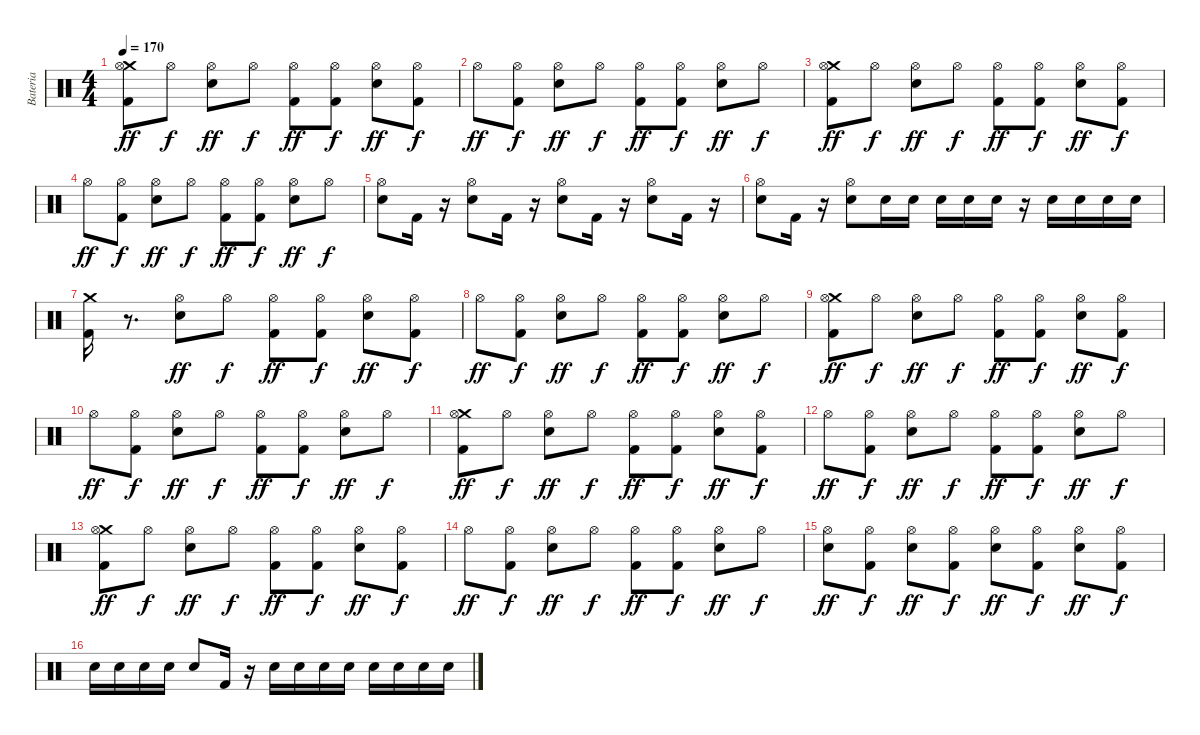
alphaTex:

\track ("Bateria" "Bateria") {instrument percussion}
\staff {score}
\articulation defaults
\ts (4 4)
\tempo 170
\clef neutral
\ks c
("Crash medium (hit)" "Hi-Hat (open)" "Kick (hit) 2").8{dy ff} "Hi-Hat (open)".8{dy f} ("Hi-Hat (open)" "Electric Snare (hit)").8{dy ff} "Hi-Hat (open)".8{dy f} ("Hi-Hat (open)" "Kick (hit) 2").8{dy ff} ("Hi-Hat (open)" "Kick (hit) 2").8{dy f} ("Hi-Hat (open)" "Electric Snare (hit)").8{dy ff} ("Hi-Hat (open)" "Kick (hit) 2").8{dy f} |
"Hi-Hat (open)".8{dy ff} ("Hi-Hat (open)" "Kick (hit) 2").8{dy f} ("Hi-Hat (open)" "Electric Snare (hit)").8{dy ff} "Hi-Hat (open)".8{dy f} ("Hi-Hat (open)" "Kick (hit) 2").8{dy ff} ("Hi-Hat (open)" "Kick (hit) 2").8{dy f} ("Hi-Hat (open)" "Electric Snare (hit)").8{dy ff} "Hi-Hat (open)".8{dy f} |
("Crash medium (hit)" "Hi-Hat (open)" "Kick (hit) 2").8{dy ff} "Hi-Hat (open)".8{dy f} ("Hi-Hat (open)" "Electric Snare (hit)").8{dy ff} "Hi-Hat (open)".8{dy f} ("Hi-Hat (open)" "Kick (hit) 2").8{dy ff} ("Hi-Hat (open)" "Kick (hit) 2").8{dy f} ("Hi-Hat (open)" "Electric Snare (hit)").8{dy ff} ("Hi-Hat (open)" "Kick (hit) 2").8{dy f} |
"Hi-Hat (open)".8{dy ff} ("Hi-Hat (open)" "Kick (hit) 2").8{dy f} ("Hi-Hat (open)" "Electric Snare (hit)").8{dy ff} "Hi-Hat (open)".8{dy f} ("Hi-Hat (open)" "Kick (hit) 2").8{dy ff} ("Hi-Hat (open)" "Kick (hit) 2").8{dy f} ("Hi-Hat (open)" "Electric Snare (hit)").8{dy ff} "Hi-Hat (open)".8{dy f} |
("Hi-Hat (open)" "Electric Snare (hit)").8 "Kick (hit) 2".16 r.16 ("Hi-Hat (open)" "Electric Snare (hit)").8 "Kick (hit) 2".16 r.16 ("Hi-Hat (open)" "Electric Snare (hit)").8 "Kick (hit) 2".16 r.16 ("Hi-Hat (open)" "Electric Snare (hit)").8 "Kick (hit) 2".16 r.16 |
("Hi-Hat (open)" "Electric Snare (hit)").8 "Kick (hit) 2".16 r.16 ("Hi-Hat (open)" "Electric Snare (hit)").8 "Electric Snare (hit)".16 "Electric Snare (hit)".16 "Electric Snare (hit)".16 "Electric Snare (hit)".16 "Electric Snare (hit)".16 r.16 "Electric Snare (hit)".16 "Electric Snare (hit)".16 "Electric Snare (hit)".16 "Electric Snare (hit)".16 |
("Crash medium (hit)" "Kick (hit) 2").16 r.8{d} ("Hi-Hat (open)" "Electric Snare (hit)").8{dy ff} "Hi-Hat (open)".8{dy f} ("Hi-Hat (open)" "Kick (hit) 2").8{dy ff} ("Hi-Hat (open)" "Kick (hit) 2").8{dy f} ("Hi-Hat (open)" "Electric Snare (hit)").8{dy ff} ("Hi-Hat (open)" "Kick (hit) 2").8{dy f} |
"Hi-Hat (open)".8{dy ff} ("Hi-Hat (open)" "Kick (hit) 2").8{dy f} ("Hi-Hat (open)" "Electric Snare (hit)").8{dy ff} "Hi-Hat (open)".8{dy f} ("Hi-Hat (open)" "Kick (hit) 2").8{dy ff} ("Hi-Hat (open)" "Kick (hit) 2").8{dy f} ("Hi-Hat (open)" "Electric Snare (hit)").8{dy ff} "Hi-Hat (open)".8{dy f} |
("Crash medium (hit)" "Hi-Hat (open)" "Kick (hit) 2").8{dy ff} "Hi-Hat (open)".8{dy f} ("Hi-Hat (open)" "Electric Snare (hit)").8{dy ff} "Hi-Hat (open)".8{dy f} ("Hi-Hat (open)" "Kick (hit) 2").8{dy ff} ("Hi-Hat (open)" "Kick (hit) 2").8{dy f} ("Hi-Hat (open)" "Electric Snare (hit)").8{dy ff} ("Hi-Hat (open)" "Kick (hit) 2").8{dy f} |
"Hi-Hat (open)".8{dy ff} ("Hi-Hat (open)" "Kick (hit) 2").8{dy f} ("Hi-Hat (open)" "Electric Snare (hit)").8{dy ff} "Hi-Hat (open)".8{dy f} ("Hi-Hat (open)" "Kick (hit) 2").8{dy ff} ("Hi-Hat (open)" "Kick (hit) 2").8{dy f} ("Hi-Hat (open)" "Electric Snare (hit)").8{dy ff} "Hi-Hat (open)".8{dy f} |
("Crash medium (hit)" "Hi-Hat (open)" "Kick (hit) 2").8{dy ff} "Hi-Hat (open)".8{dy f} ("Hi-Hat (open)" "Electric Snare (hit)").8{dy ff} "Hi-Hat (open)".8{dy f} ("Hi-Hat (open)" "Kick (hit) 2").8{dy ff} ("Hi-Hat (open)" "Kick (hit) 2").8{dy f} ("Hi-Hat (open)" "Electric Snare (hit)").8{dy ff} ("Hi-Hat (open)" "Kick (hit) 2").8{dy f} |
"Hi-Hat (open)".8{dy ff} ("Hi-Hat (open)" "Kick (hit) 2").8{dy f} ("Hi-Hat (open)" "Electric Snare (hit)").8{dy ff} "Hi-Hat (open)".8{dy f} ("Hi-Hat (open)" "Kick (hit) 2").8{dy ff} ("Hi-Hat (open)" "Kick (hit) 2").8{dy f} ("Hi-Hat (open)" "Electric Snare (hit)").8{dy ff} "Hi-Hat (open)".8{dy f} |
("Crash medium (hit)" "Hi-Hat (open)" "Kick (hit) 2").8{dy ff} "Hi-Hat (open)".8{dy f} ("Hi-Hat (open)" "Electric Snare (hit)").8{dy ff} "Hi-Hat (open)".8{dy f} ("Hi-Hat (open)" "Kick (hit) 2").8{dy ff} ("Hi-Hat (open)" "Kick (hit) 2").8{dy f} ("Hi-Hat (open)" "Electric Snare (hit)").8{dy ff} ("Hi-Hat (open)" "Kick (hit) 2").8{dy f} |
"Hi-Hat (open)".8{dy ff} ("Hi-Hat (open)" "Kick (hit) 2").8{dy f} ("Hi-Hat (open)" "Electric Snare (hit)").8{dy ff} "Hi-Hat (open)".8{dy f} ("Hi-Hat (open)" "Kick (hit) 2").8{dy ff} ("Hi-Hat (open)" "Kick (hit) 2").8{dy f} ("Hi-Hat (open)" "Electric Snare (hit)").8{dy ff} "Hi-Hat (open)".8{dy f} |
("Hi-Hat (open)" "Electric Snare (hit)").8{dy ff} ("Hi-Hat (open)" "Kick (hit) 2").8{dy f} ("Hi-Hat (open)" "Electric Snare (hit)").8{dy ff} ("Hi-Hat (open)" "Kick (hit) 2").8{dy f} ("Hi-Hat (open)" "Electric Snare (hit)").8{dy ff} ("Hi-Hat (open)" "Kick (hit) 2").8{dy f} ("Hi-Hat (open)" "Electric Snare (hit)").8{dy ff} ("Hi-Hat (open)" "Kick (hit) 2").8{dy f} |
"Electric Snare (hit)".16 "Electric Snare (hit)".16 "Electric Snare (hit)".16 "Electric Snare (hit)".16 "Electric Snare (hit)".8 "Kick (hit) 2".16 r.16 "Electric Snare (hit)".16 "Electric Snare (hit)".16 "Electric Snare (hit)".16 "Electric Snare (hit)".16 "Electric Snare (hit)".16 "Electric Snare (hit)".16 "Electric Snare (hit)".16 "Electric Snare (hit)".16
